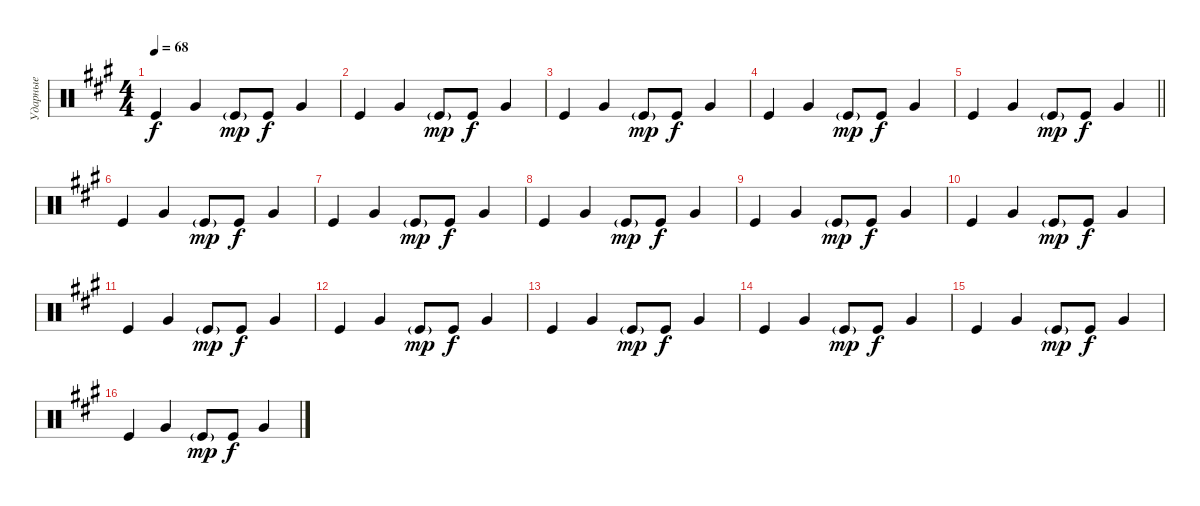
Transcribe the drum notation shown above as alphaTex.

\track ("Ударные" "Ударные") {instrument percussion}
\staff
\articulation defaults
\ts (4 4)
\tempo 68
\clef neutral
\ks a "Kick (hit)".4{dy f} "Very Low Tom (hit)".4 "Kick (hit)"{g}.8{dy mp} "Kick (hit)".8{dy f} "Very Low Tom (hit)".4
|
"Kick (hit)".4 "Very Low Tom (hit)".4 "Kick (hit)"{g}.8{dy mp} "Kick (hit)".8{dy f} "Very Low Tom (hit)".4 |
"Kick (hit)".4 "Very Low Tom (hit)".4 "Kick (hit)"{g}.8{dy mp} "Kick (hit)".8{dy f} "Very Low Tom (hit)".4 |
"Kick (hit)".4 "Very Low Tom (hit)".4 "Kick (hit)"{g}.8{dy mp} "Kick (hit)".8{dy f} "Very Low Tom (hit)".4 |
\barLineRight lightlight "Kick (hit)".4 "Very Low Tom (hit)".4 "Kick (hit)"{g}.8{dy mp} "Kick (hit)".8{dy f} "Very Low Tom (hit)".4
|
"Kick (hit)".4 "Very Low Tom (hit)".4 "Kick (hit)"{g}.8{dy mp} "Kick (hit)".8{dy f} "Very Low Tom (hit)".4 |
"Kick (hit)".4 "Very Low Tom (hit)".4 "Kick (hit)"{g}.8{dy mp} "Kick (hit)".8{dy f} "Very Low Tom (hit)".4 |
"Kick (hit)".4 "Very Low Tom (hit)".4 "Kick (hit)"{g}.8{dy mp} "Kick (hit)".8{dy f} "Very Low Tom (hit)".4 |
"Kick (hit)".4 "Very Low Tom (hit)".4 "Kick (hit)"{g}.8{dy mp} "Kick (hit)".8{dy f} "Very Low Tom (hit)".4 |
"Kick (hit)".4 "Very Low Tom (hit)".4 "Kick (hit)"{g}.8{dy mp} "Kick (hit)".8{dy f} "Very Low Tom (hit)".4 |
"Kick (hit)".4 "Very Low Tom (hit)".4 "Kick (hit)"{g}.8{dy mp} "Kick (hit)".8{dy f} "Very Low Tom (hit)".4 |
"Kick (hit)".4 "Very Low Tom (hit)".4 "Kick (hit)"{g}.8{dy mp} "Kick (hit)".8{dy f} "Very Low Tom (hit)".4 |
"Kick (hit)".4 "Very Low Tom (hit)".4 "Kick (hit)"{g}.8{dy mp} "Kick (hit)".8{dy f} "Very Low Tom (hit)".4 |
"Kick (hit)".4 "Very Low Tom (hit)".4 "Kick (hit)"{g}.8{dy mp} "Kick (hit)".8{dy f} "Very Low Tom (hit)".4 |
"Kick (hit)".4 "Very Low Tom (hit)".4 "Kick (hit)"{g}.8{dy mp} "Kick (hit)".8{dy f} "Very Low Tom (hit)".4 |
"Kick (hit)".4 "Very Low Tom (hit)".4 "Kick (hit)"{g}.8{dy mp} "Kick (hit)".8{dy f} "Very Low Tom (hit)".4
